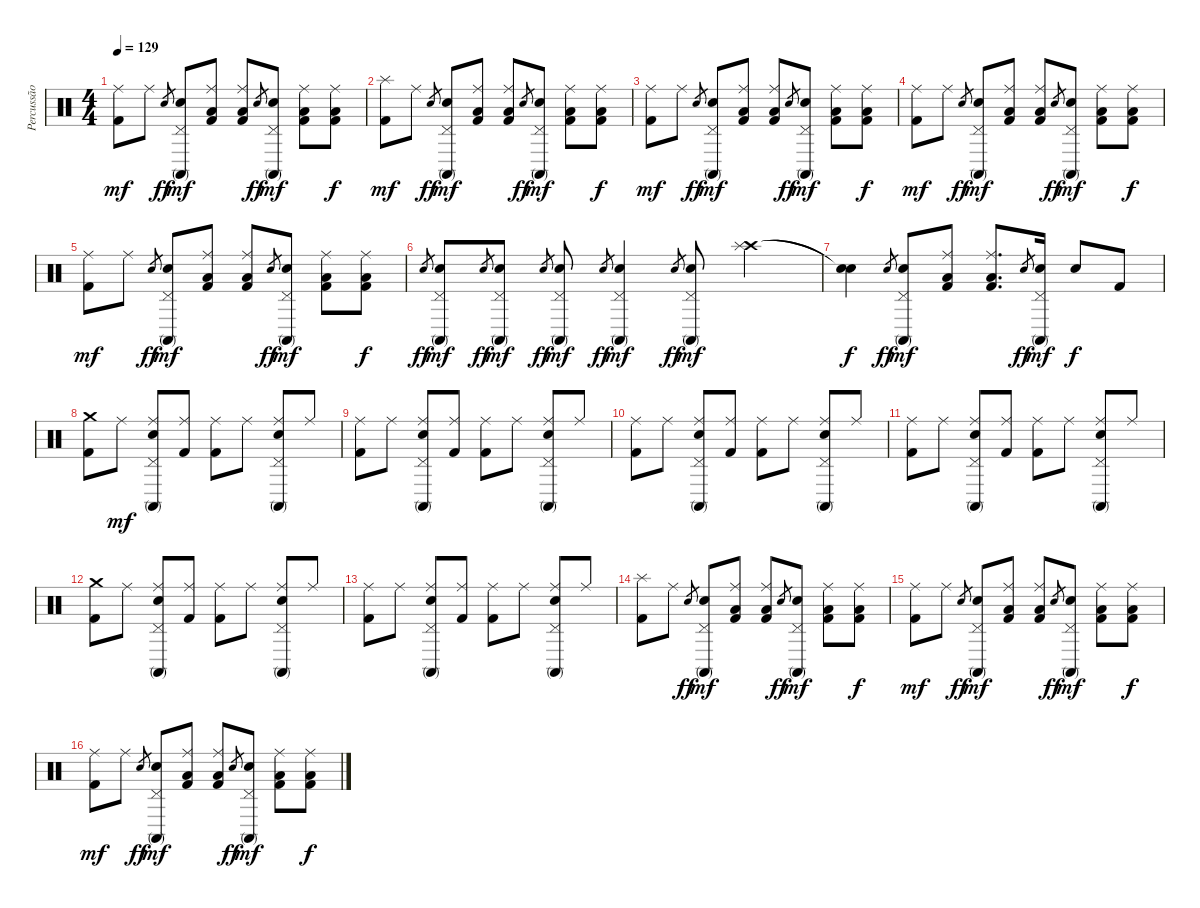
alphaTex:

\track ("Percussão" "Percussão") {instrument percussion}
\staff {score}
\articulation defaults
\ts (4 4)
\tempo 129
\clef neutral
\ks c
("Ride (middle)" "Kick (hit) 2").8{dy mf} "Ride (middle)".8 "Snare (hit) 2".8{gr dy ff} ("Snare (hit) 2" "Conga high (mute)" "Pedal Hi-Hat (hit)").8{dy mf} ("Ride (middle)" "Low Floor Tom (hit)" "Kick (hit) 2").8 ("Ride (middle)" "Low Floor Tom (hit)" "Kick (hit) 2").8 "Snare (hit) 2".8{gr dy ff} ("Snare (hit) 2" "Conga high (mute)" "Pedal Hi-Hat (hit)").8{dy mf} ("Ride (middle)" "Low Floor Tom (hit)" "Kick (hit) 2").8 ("Ride (middle)" "Low Floor Tom (hit)" "Kick (hit) 2").8{dy f} |
("Splash (hit)" "Kick (hit) 2").8{dy mf} "Ride (middle)".8 "Snare (hit) 2".8{gr dy ff} ("Snare (hit) 2" "Conga high (mute)" "Pedal Hi-Hat (hit)").8{dy mf} ("Ride (middle)" "Low Floor Tom (hit)" "Kick (hit) 2").8 ("Ride (middle)" "Low Floor Tom (hit)" "Kick (hit) 2").8 "Snare (hit) 2".8{gr dy ff} ("Snare (hit) 2" "Conga high (mute)" "Pedal Hi-Hat (hit)").8{dy mf} ("Ride (middle)" "Low Floor Tom (hit)" "Kick (hit) 2").8 ("Ride (middle)" "Low Floor Tom (hit)" "Kick (hit) 2").8{dy f} |
("Ride (middle)" "Kick (hit) 2").8{dy mf} "Ride (middle)".8 "Snare (hit) 2".8{gr dy ff} ("Snare (hit) 2" "Conga high (mute)" "Pedal Hi-Hat (hit)").8{dy mf} ("Ride (middle)" "Low Floor Tom (hit)" "Kick (hit) 2").8 ("Ride (middle)" "Low Floor Tom (hit)" "Kick (hit) 2").8 "Snare (hit) 2".8{gr dy ff} ("Snare (hit) 2" "Conga high (mute)" "Pedal Hi-Hat (hit)").8{dy mf} ("Ride (middle)" "Low Floor Tom (hit)" "Kick (hit) 2").8 ("Ride (middle)" "Low Floor Tom (hit)" "Kick (hit) 2").8{dy f} |
("Ride (middle)" "Kick (hit) 2").8{dy mf} "Ride (middle)".8 "Snare (hit) 2".8{gr dy ff} ("Snare (hit) 2" "Conga high (mute)" "Pedal Hi-Hat (hit)").8{dy mf} ("Ride (middle)" "Low Floor Tom (hit)" "Kick (hit) 2").8 ("Ride (middle)" "Low Floor Tom (hit)" "Kick (hit) 2").8 "Snare (hit) 2".8{gr dy ff} ("Snare (hit) 2" "Conga high (mute)" "Pedal Hi-Hat (hit)").8{dy mf} ("Ride (middle)" "Low Floor Tom (hit)" "Kick (hit) 2").8 ("Ride (middle)" "Low Floor Tom (hit)" "Kick (hit) 2").8{dy f} |
("Ride (middle)" "Kick (hit) 2").8{dy mf} "Ride (middle)".8 "Snare (hit) 2".8{gr dy ff} ("Snare (hit) 2" "Conga high (mute)" "Pedal Hi-Hat (hit)").8{dy mf} ("Ride (middle)" "Low Floor Tom (hit)" "Kick (hit) 2").8 ("Ride (middle)" "Low Floor Tom (hit)" "Kick (hit) 2").8 "Snare (hit) 2".8{gr dy ff} ("Snare (hit) 2" "Conga high (mute)" "Pedal Hi-Hat (hit)").8{dy mf} ("Ride (middle)" "Low Floor Tom (hit)" "Kick (hit) 2").8 ("Ride (middle)" "Low Floor Tom (hit)" "Kick (hit) 2").8{dy f} |
"Snare (hit) 2".8{gr dy ff} ("Snare (hit) 2" "Conga high (mute)" "Pedal Hi-Hat (hit)").8{dy mf} "Snare (hit) 2".8{gr dy ff} ("Snare (hit) 2" "Conga high (mute)" "Pedal Hi-Hat (hit)").8{dy mf} "Snare (hit) 2".8{gr dy ff} ("Snare (hit) 2" "Conga high (mute)" "Pedal Hi-Hat (hit)").8{dy mf} "Snare (hit) 2".8{gr dy ff} ("Snare (hit) 2" "Conga high (mute)" "Pedal Hi-Hat (hit)").4{dy mf} "Snare (hit) 2".8{gr dy ff} ("Snare (hit) 2" "Conga high (mute)" "Pedal Hi-Hat (hit)").8{dy mf} ("Crash high (hit)" "Splash (hit)").4 |
("Snare (hit)"{t} "Snare (hit)"{t}).4{dy f} "Snare (hit) 2".8{gr dy ff} ("Snare (hit) 2" "Conga high (mute)" "Pedal Hi-Hat (hit)").8{dy mf} ("Ride (middle)" "Low Floor Tom (hit)" "Kick (hit) 2").8 ("Ride (middle)" "Low Floor Tom (hit)" "Kick (hit) 2").8{d} "Snare (hit) 2".8{gr dy ff} ("Snare (hit) 2" "Conga high (mute)" "Pedal Hi-Hat (hit)").16{dy mf} "Snare (hit) 2".8{dy f} "Kick (hit) 2".8 |
("Crash medium (hit)" "Kick (hit) 2").8 "Ride (middle)".8{dy mf} ("Ride (middle)" "Snare (hit) 2" "Conga high (mute)" "Pedal Hi-Hat (hit)").8 ("Ride (middle)" "Kick (hit) 2").8 ("Ride (middle)" "Kick (hit) 2").8 "Ride (middle)".8 ("Ride (middle)" "Snare (hit) 2" "Conga high (mute)" "Pedal Hi-Hat (hit)").8 "Ride (middle)".8 |
("Ride (middle)" "Kick (hit) 2").8 "Ride (middle)".8 ("Ride (middle)" "Snare (hit) 2" "Conga high (mute)" "Pedal Hi-Hat (hit)").8 ("Ride (middle)" "Kick (hit) 2").8 ("Ride (middle)" "Kick (hit) 2").8 "Ride (middle)".8 ("Ride (middle)" "Snare (hit) 2" "Conga high (mute)" "Pedal Hi-Hat (hit)").8 "Ride (middle)".8 |
("Ride (middle)" "Kick (hit) 2").8 "Ride (middle)".8 ("Ride (middle)" "Snare (hit) 2" "Conga high (mute)" "Pedal Hi-Hat (hit)").8 ("Ride (middle)" "Kick (hit) 2").8 ("Ride (middle)" "Kick (hit) 2").8 "Ride (middle)".8 ("Ride (middle)" "Snare (hit) 2" "Conga high (mute)" "Pedal Hi-Hat (hit)").8 "Ride (middle)".8 |
("Ride (middle)" "Kick (hit) 2").8 "Ride (middle)".8 ("Ride (middle)" "Snare (hit) 2" "Conga high (mute)" "Pedal Hi-Hat (hit)").8 ("Ride (middle)" "Kick (hit) 2").8 ("Ride (middle)" "Kick (hit) 2").8 "Ride (middle)".8 ("Ride (middle)" "Snare (hit) 2" "Conga high (mute)" "Pedal Hi-Hat (hit)").8 "Ride (middle)".8 |
("Crash medium (hit)" "Kick (hit) 2").8 "Ride (middle)".8 ("Ride (middle)" "Snare (hit) 2" "Conga high (mute)" "Pedal Hi-Hat (hit)").8 ("Ride (middle)" "Kick (hit) 2").8 ("Ride (middle)" "Kick (hit) 2").8 "Ride (middle)".8 ("Ride (middle)" "Snare (hit) 2" "Conga high (mute)" "Pedal Hi-Hat (hit)").8 "Ride (middle)".8 |
("Ride (middle)" "Kick (hit) 2").8 "Ride (middle)".8 ("Ride (middle)" "Snare (hit) 2" "Conga high (mute)" "Pedal Hi-Hat (hit)").8 ("Ride (middle)" "Kick (hit) 2").8 ("Ride (middle)" "Kick (hit) 2").8 "Ride (middle)".8 ("Ride (middle)" "Snare (hit) 2" "Conga high (mute)" "Pedal Hi-Hat (hit)").8 "Ride (middle)".8 |
("Splash (hit)" "Kick (hit) 2").8 "Ride (middle)".8 "Snare (hit) 2".8{gr dy ff} ("Snare (hit) 2" "Conga high (mute)" "Pedal Hi-Hat (hit)").8{dy mf} ("Ride (middle)" "Low Floor Tom (hit)" "Kick (hit) 2").8 ("Ride (middle)" "Low Floor Tom (hit)" "Kick (hit) 2").8 "Snare (hit) 2".8{gr dy ff} ("Snare (hit) 2" "Conga high (mute)" "Pedal Hi-Hat (hit)").8{dy mf} ("Ride (middle)" "Low Floor Tom (hit)" "Kick (hit) 2").8 ("Ride (middle)" "Low Floor Tom (hit)" "Kick (hit) 2").8{dy f} |
("Ride (middle)" "Kick (hit) 2").8{dy mf} "Ride (middle)".8 "Snare (hit) 2".8{gr dy ff} ("Snare (hit) 2" "Conga high (mute)" "Pedal Hi-Hat (hit)").8{dy mf} ("Ride (middle)" "Low Floor Tom (hit)" "Kick (hit) 2").8 ("Ride (middle)" "Low Floor Tom (hit)" "Kick (hit) 2").8 "Snare (hit) 2".8{gr dy ff} ("Snare (hit) 2" "Conga high (mute)" "Pedal Hi-Hat (hit)").8{dy mf} ("Ride (middle)" "Low Floor Tom (hit)" "Kick (hit) 2").8 ("Ride (middle)" "Low Floor Tom (hit)" "Kick (hit) 2").8{dy f} |
("Ride (middle)" "Kick (hit) 2").8{dy mf} "Ride (middle)".8 "Snare (hit) 2".8{gr dy ff} ("Snare (hit) 2" "Conga high (mute)" "Pedal Hi-Hat (hit)").8{dy mf} ("Ride (middle)" "Low Floor Tom (hit)" "Kick (hit) 2").8 ("Ride (middle)" "Low Floor Tom (hit)" "Kick (hit) 2").8 "Snare (hit) 2".8{gr dy ff} ("Snare (hit) 2" "Conga high (mute)" "Pedal Hi-Hat (hit)").8{dy mf} ("Ride (middle)" "Low Floor Tom (hit)" "Kick (hit) 2").8 ("Ride (middle)" "Low Floor Tom (hit)" "Kick (hit) 2").8{dy f}
